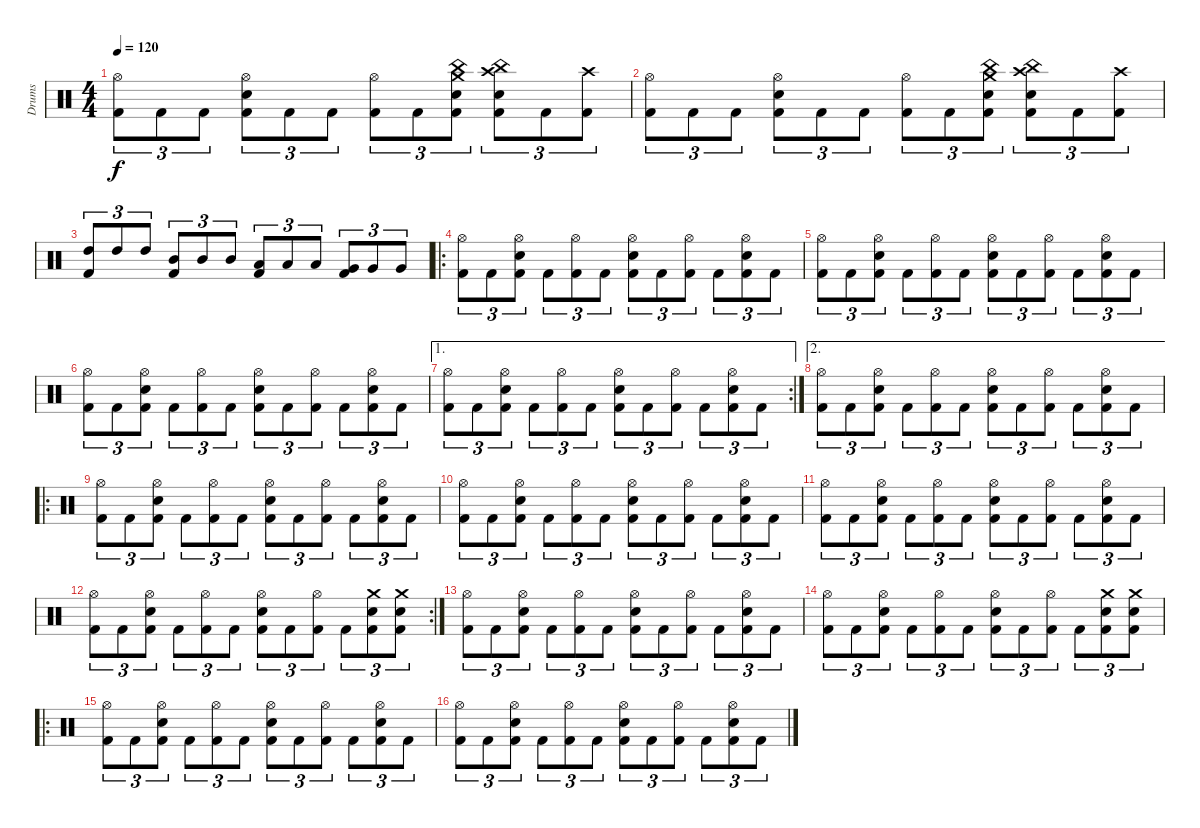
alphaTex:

\track ("Drums" "Drums") {instrument percussion}
\staff {score}
\articulation defaults
\ts (4 4)
\tempo 120
\clef neutral
\ks c
("Hi-Hat (open)" "Kick (hit) 2").8{tu (3 2) dy f} "Kick (hit) 2".8{tu (3 2)} "Kick (hit) 2".8{tu (3 2)} ("Hi-Hat (open)" "Snare (hit) 2" "Kick (hit) 2").8{tu (3 2)} "Kick (hit) 2".8{tu (3 2)} "Kick (hit) 2".8{tu (3 2)} ("Hi-Hat (open)" "Kick (hit) 2").8{tu (3 2)} "Kick (hit) 2".8{tu (3 2)} ("China (hit)" "Crash medium (hit)" "Snare (hit) 2" "Kick (hit) 2").8{tu (3 2)} ("China (hit)" "Crash high (hit)" "Snare (hit) 2" "Kick (hit) 2").8{tu (3 2)} "Kick (hit) 2".8{tu (3 2)} ("Crash high (hit)" "Kick (hit) 2").8{tu (3 2)} |
("Hi-Hat (open)" "Kick (hit) 2").8{tu (3 2)} "Kick (hit) 2".8{tu (3 2)} "Kick (hit) 2".8{tu (3 2)} ("Hi-Hat (open)" "Snare (hit) 2" "Kick (hit) 2").8{tu (3 2)} "Kick (hit) 2".8{tu (3 2)} "Kick (hit) 2".8{tu (3 2)} ("Hi-Hat (open)" "Kick (hit) 2").8{tu (3 2)} "Kick (hit) 2".8{tu (3 2)} ("China (hit)" "Crash medium (hit)" "Snare (hit) 2" "Kick (hit) 2").8{tu (3 2)} ("China (hit)" "Crash high (hit)" "Snare (hit) 2" "Kick (hit) 2").8{tu (3 2)} "Kick (hit) 2".8{tu (3 2)} ("Crash high (hit)" "Kick (hit) 2").8{tu (3 2)} |
("High Tom (hit)" "Kick (hit) 2").8{tu (3 2)} "High Tom (hit)".8{tu (3 2)} "High Tom (hit)".8{tu (3 2)} ("Mid Tom (hit)" "Kick (hit) 2").8{tu (3 2)} "Mid Tom (hit)".8{tu (3 2)} "Mid Tom (hit)".8{tu (3 2)} ("Low Tom (hit)" "Kick (hit) 2").8{tu (3 2)} "Low Tom (hit)".8{tu (3 2)} "Low Tom (hit)".8{tu (3 2)} ("Very Low Tom (hit)" "Kick (hit) 2").8{tu (3 2)} "Very Low Tom (hit)".8{tu (3 2)} "Very Low Tom (hit)".8{tu (3 2)} |
\ro
("Hi-Hat (open)" "Kick (hit) 2").8{tu (3 2)} "Kick (hit) 2".8{tu (3 2)} ("Hi-Hat (open)" "Snare (hit) 2" "Kick (hit) 2").8{tu (3 2)} "Kick (hit) 2".8{tu (3 2)} ("Hi-Hat (open)" "Kick (hit) 2").8{tu (3 2)} "Kick (hit) 2".8{tu (3 2)} ("Hi-Hat (open)" "Snare (hit) 2" "Kick (hit) 2").8{tu (3 2)} "Kick (hit) 2".8{tu (3 2)} ("Hi-Hat (open)" "Kick (hit) 2").8{tu (3 2)} "Kick (hit) 2".8{tu (3 2)} ("Hi-Hat (open)" "Snare (hit) 2" "Kick (hit) 2").8{tu (3 2)} "Kick (hit) 2".8{tu (3 2)} |
("Hi-Hat (open)" "Kick (hit) 2").8{tu (3 2)} "Kick (hit) 2".8{tu (3 2)} ("Hi-Hat (open)" "Snare (hit) 2" "Kick (hit) 2").8{tu (3 2)} "Kick (hit) 2".8{tu (3 2)} ("Hi-Hat (open)" "Kick (hit) 2").8{tu (3 2)} "Kick (hit) 2".8{tu (3 2)} ("Hi-Hat (open)" "Snare (hit) 2" "Kick (hit) 2").8{tu (3 2)} "Kick (hit) 2".8{tu (3 2)} ("Hi-Hat (open)" "Kick (hit) 2").8{tu (3 2)} "Kick (hit) 2".8{tu (3 2)} ("Hi-Hat (open)" "Snare (hit) 2" "Kick (hit) 2").8{tu (3 2)} "Kick (hit) 2".8{tu (3 2)} |
("Hi-Hat (open)" "Kick (hit) 2").8{tu (3 2)} "Kick (hit) 2".8{tu (3 2)} ("Hi-Hat (open)" "Snare (hit) 2" "Kick (hit) 2").8{tu (3 2)} "Kick (hit) 2".8{tu (3 2)} ("Hi-Hat (open)" "Kick (hit) 2").8{tu (3 2)} "Kick (hit) 2".8{tu (3 2)} ("Hi-Hat (open)" "Snare (hit) 2" "Kick (hit) 2").8{tu (3 2)} "Kick (hit) 2".8{tu (3 2)} ("Hi-Hat (open)" "Kick (hit) 2").8{tu (3 2)} "Kick (hit) 2".8{tu (3 2)} ("Hi-Hat (open)" "Snare (hit) 2" "Kick (hit) 2").8{tu (3 2)} "Kick (hit) 2".8{tu (3 2)} |
\ae 1
\rc 2
("Hi-Hat (open)" "Kick (hit) 2").8{tu (3 2)} "Kick (hit) 2".8{tu (3 2)} ("Hi-Hat (open)" "Snare (hit) 2" "Kick (hit) 2").8{tu (3 2)} "Kick (hit) 2".8{tu (3 2)} ("Hi-Hat (open)" "Kick (hit) 2").8{tu (3 2)} "Kick (hit) 2".8{tu (3 2)} ("Hi-Hat (open)" "Snare (hit) 2" "Kick (hit) 2").8{tu (3 2)} "Kick (hit) 2".8{tu (3 2)} ("Hi-Hat (open)" "Kick (hit) 2").8{tu (3 2)} "Kick (hit) 2".8{tu (3 2)} ("Hi-Hat (open)" "Snare (hit) 2" "Kick (hit) 2").8{tu (3 2)} "Kick (hit) 2".8{tu (3 2)} |
\ae 2
("Hi-Hat (open)" "Kick (hit) 2").8{tu (3 2)} "Kick (hit) 2".8{tu (3 2)} ("Hi-Hat (open)" "Snare (hit) 2" "Kick (hit) 2").8{tu (3 2)} "Kick (hit) 2".8{tu (3 2)} ("Hi-Hat (open)" "Kick (hit) 2").8{tu (3 2)} "Kick (hit) 2".8{tu (3 2)} ("Hi-Hat (open)" "Snare (hit) 2" "Kick (hit) 2").8{tu (3 2)} "Kick (hit) 2".8{tu (3 2)} ("Hi-Hat (open)" "Kick (hit) 2").8{tu (3 2)} "Kick (hit) 2".8{tu (3 2)} ("Hi-Hat (open)" "Snare (hit) 2" "Kick (hit) 2").8{tu (3 2)} "Kick (hit) 2".8{tu (3 2)} |
\ro
("Hi-Hat (open)" "Kick (hit) 2").8{tu (3 2)} "Kick (hit) 2".8{tu (3 2)} ("Hi-Hat (open)" "Snare (hit) 2" "Kick (hit) 2").8{tu (3 2)} "Kick (hit) 2".8{tu (3 2)} ("Hi-Hat (open)" "Kick (hit) 2").8{tu (3 2)} "Kick (hit) 2".8{tu (3 2)} ("Hi-Hat (open)" "Snare (hit) 2" "Kick (hit) 2").8{tu (3 2)} "Kick (hit) 2".8{tu (3 2)} ("Hi-Hat (open)" "Kick (hit) 2").8{tu (3 2)} "Kick (hit) 2".8{tu (3 2)} ("Hi-Hat (open)" "Snare (hit) 2" "Kick (hit) 2").8{tu (3 2)} "Kick (hit) 2".8{tu (3 2)} |
("Hi-Hat (open)" "Kick (hit) 2").8{tu (3 2)} "Kick (hit) 2".8{tu (3 2)} ("Hi-Hat (open)" "Snare (hit) 2" "Kick (hit) 2").8{tu (3 2)} "Kick (hit) 2".8{tu (3 2)} ("Hi-Hat (open)" "Kick (hit) 2").8{tu (3 2)} "Kick (hit) 2".8{tu (3 2)} ("Hi-Hat (open)" "Snare (hit) 2" "Kick (hit) 2").8{tu (3 2)} "Kick (hit) 2".8{tu (3 2)} ("Hi-Hat (open)" "Kick (hit) 2").8{tu (3 2)} "Kick (hit) 2".8{tu (3 2)} ("Hi-Hat (open)" "Snare (hit) 2" "Kick (hit) 2").8{tu (3 2)} "Kick (hit) 2".8{tu (3 2)} |
("Hi-Hat (open)" "Kick (hit) 2").8{tu (3 2)} "Kick (hit) 2".8{tu (3 2)} ("Hi-Hat (open)" "Snare (hit) 2" "Kick (hit) 2").8{tu (3 2)} "Kick (hit) 2".8{tu (3 2)} ("Hi-Hat (open)" "Kick (hit) 2").8{tu (3 2)} "Kick (hit) 2".8{tu (3 2)} ("Hi-Hat (open)" "Snare (hit) 2" "Kick (hit) 2").8{tu (3 2)} "Kick (hit) 2".8{tu (3 2)} ("Hi-Hat (open)" "Kick (hit) 2").8{tu (3 2)} "Kick (hit) 2".8{tu (3 2)} ("Hi-Hat (open)" "Snare (hit) 2" "Kick (hit) 2").8{tu (3 2)} "Kick (hit) 2".8{tu (3 2)} |
\rc 2
("Hi-Hat (open)" "Kick (hit) 2").8{tu (3 2)} "Kick (hit) 2".8{tu (3 2)} ("Hi-Hat (open)" "Snare (hit) 2" "Kick (hit) 2").8{tu (3 2)} "Kick (hit) 2".8{tu (3 2)} ("Hi-Hat (open)" "Kick (hit) 2").8{tu (3 2)} "Kick (hit) 2".8{tu (3 2)} ("Hi-Hat (open)" "Snare (hit) 2" "Kick (hit) 2").8{tu (3 2)} "Kick (hit) 2".8{tu (3 2)} ("Hi-Hat (open)" "Kick (hit) 2").8{tu (3 2)} "Kick (hit) 2".8{tu (3 2)} ("Crash medium (hit)" "Snare (hit) 2" "Kick (hit) 2").8{tu (3 2)} ("Crash medium (hit)" "Snare (hit) 2" "Kick (hit) 2").8{tu (3 2)} |
("Hi-Hat (open)" "Kick (hit) 2").8{tu (3 2)} "Kick (hit) 2".8{tu (3 2)} ("Hi-Hat (open)" "Snare (hit) 2" "Kick (hit) 2").8{tu (3 2)} "Kick (hit) 2".8{tu (3 2)} ("Hi-Hat (open)" "Kick (hit) 2").8{tu (3 2)} "Kick (hit) 2".8{tu (3 2)} ("Hi-Hat (open)" "Snare (hit) 2" "Kick (hit) 2").8{tu (3 2)} "Kick (hit) 2".8{tu (3 2)} ("Hi-Hat (open)" "Kick (hit) 2").8{tu (3 2)} "Kick (hit) 2".8{tu (3 2)} ("Hi-Hat (open)" "Snare (hit) 2" "Kick (hit) 2").8{tu (3 2)} "Kick (hit) 2".8{tu (3 2)} |
("Hi-Hat (open)" "Kick (hit) 2").8{tu (3 2)} "Kick (hit) 2".8{tu (3 2)} ("Hi-Hat (open)" "Snare (hit) 2" "Kick (hit) 2").8{tu (3 2)} "Kick (hit) 2".8{tu (3 2)} ("Hi-Hat (open)" "Kick (hit) 2").8{tu (3 2)} "Kick (hit) 2".8{tu (3 2)} ("Hi-Hat (open)" "Snare (hit) 2" "Kick (hit) 2").8{tu (3 2)} "Kick (hit) 2".8{tu (3 2)} ("Hi-Hat (open)" "Kick (hit) 2").8{tu (3 2)} "Kick (hit) 2".8{tu (3 2)} ("Crash medium (hit)" "Snare (hit) 2" "Kick (hit) 2").8{tu (3 2)} ("Crash medium (hit)" "Snare (hit) 2" "Kick (hit) 2").8{tu (3 2)} |
\ro
("Hi-Hat (open)" "Kick (hit) 2").8{tu (3 2)} "Kick (hit) 2".8{tu (3 2)} ("Hi-Hat (open)" "Snare (hit) 2" "Kick (hit) 2").8{tu (3 2)} "Kick (hit) 2".8{tu (3 2)} ("Hi-Hat (open)" "Kick (hit) 2").8{tu (3 2)} "Kick (hit) 2".8{tu (3 2)} ("Hi-Hat (open)" "Snare (hit) 2" "Kick (hit) 2").8{tu (3 2)} "Kick (hit) 2".8{tu (3 2)} ("Hi-Hat (open)" "Kick (hit) 2").8{tu (3 2)} "Kick (hit) 2".8{tu (3 2)} ("Hi-Hat (open)" "Snare (hit) 2" "Kick (hit) 2").8{tu (3 2)} "Kick (hit) 2".8{tu (3 2)} |
("Hi-Hat (open)" "Kick (hit) 2").8{tu (3 2)} "Kick (hit) 2".8{tu (3 2)} ("Hi-Hat (open)" "Snare (hit) 2" "Kick (hit) 2").8{tu (3 2)} "Kick (hit) 2".8{tu (3 2)} ("Hi-Hat (open)" "Kick (hit) 2").8{tu (3 2)} "Kick (hit) 2".8{tu (3 2)} ("Hi-Hat (open)" "Snare (hit) 2" "Kick (hit) 2").8{tu (3 2)} "Kick (hit) 2".8{tu (3 2)} ("Hi-Hat (open)" "Kick (hit) 2").8{tu (3 2)} "Kick (hit) 2".8{tu (3 2)} ("Hi-Hat (open)" "Snare (hit) 2" "Kick (hit) 2").8{tu (3 2)} "Kick (hit) 2".8{tu (3 2)}
